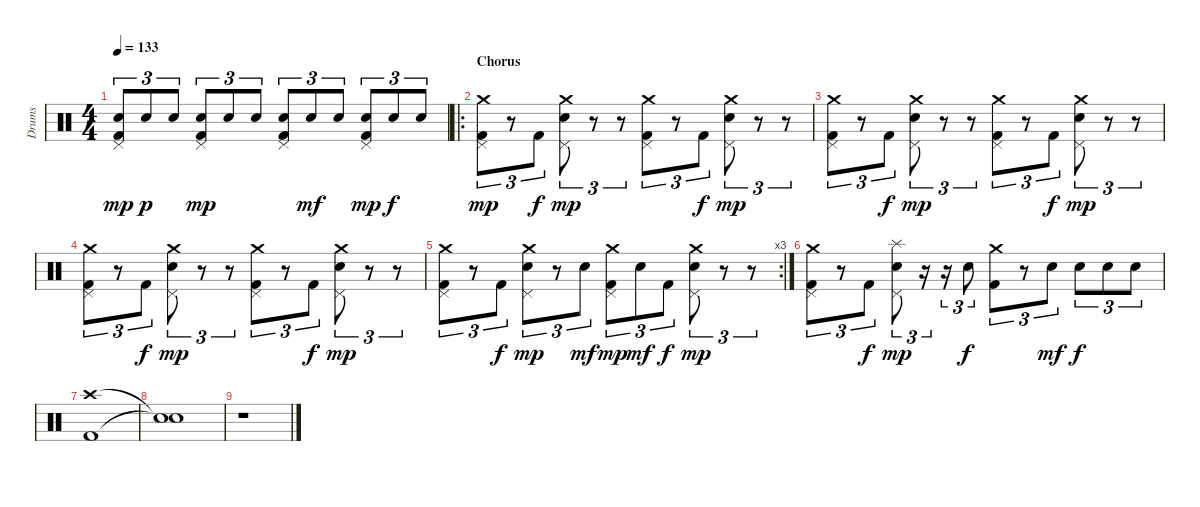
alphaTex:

\track ("Drums" "Drums") {instrument percussion}
\staff {score}
\articulation defaults
\ts (4 4)
\tempo 133
\clef neutral
\ks c
("Electric Snare (hit)" "Pedal Hi-Hat (hit)" "Kick (hit) 2").8{tu (3 2) dy mp} "Electric Snare (hit)".8{tu (3 2) dy p} "Electric Snare (hit)".8{tu (3 2)} ("Electric Snare (hit)" "Pedal Hi-Hat (hit)" "Kick (hit) 2").8{tu (3 2) dy mp} "Electric Snare (hit)".8{tu (3 2)} "Electric Snare (hit)".8{tu (3 2)} ("Electric Snare (hit)" "Pedal Hi-Hat (hit)" "Kick (hit) 2").8{tu (3 2)} "Electric Snare (hit)".8{tu (3 2) dy mf} "Electric Snare (hit)".8{tu (3 2)} ("Electric Snare (hit)" "Pedal Hi-Hat (hit)" "Kick (hit) 2").8{tu (3 2) dy mp} "Electric Snare (hit)".8{tu (3 2) dy f} "Electric Snare (hit)".8{tu (3 2)} |
\ro
\section ("" "Chorus")
("Crash medium (hit)" "Pedal Hi-Hat (hit)" "Kick (hit) 2").8{tu (3 2) dy mp} r.8{tu (3 2)} "Kick (hit) 2".8{tu (3 2) dy f} ("Crash medium (hit)" "Electric Snare (hit)" "Pedal Hi-Hat (hit)").8{tu (3 2) dy mp} r.8{tu (3 2)} r.8{tu (3 2)} ("Crash medium (hit)" "Pedal Hi-Hat (hit)" "Kick (hit) 2").8{tu (3 2)} r.8{tu (3 2)} "Kick (hit) 2".8{tu (3 2) dy f} ("Crash medium (hit)" "Electric Snare (hit)" "Pedal Hi-Hat (hit)").8{tu (3 2) dy mp} r.8{tu (3 2)} r.8{tu (3 2)} |
("Crash medium (hit)" "Pedal Hi-Hat (hit)" "Kick (hit) 2").8{tu (3 2)} r.8{tu (3 2)} "Kick (hit) 2".8{tu (3 2) dy f} ("Crash medium (hit)" "Electric Snare (hit)" "Pedal Hi-Hat (hit)").8{tu (3 2) dy mp} r.8{tu (3 2)} r.8{tu (3 2)} ("Crash medium (hit)" "Pedal Hi-Hat (hit)" "Kick (hit) 2").8{tu (3 2)} r.8{tu (3 2)} "Kick (hit) 2".8{tu (3 2) dy f} ("Crash medium (hit)" "Electric Snare (hit)" "Pedal Hi-Hat (hit)").8{tu (3 2) dy mp} r.8{tu (3 2)} r.8{tu (3 2)} |
("Crash medium (hit)" "Pedal Hi-Hat (hit)" "Kick (hit) 2").8{tu (3 2)} r.8{tu (3 2)} "Kick (hit) 2".8{tu (3 2) dy f} ("Crash medium (hit)" "Electric Snare (hit)" "Pedal Hi-Hat (hit)").8{tu (3 2) dy mp} r.8{tu (3 2)} r.8{tu (3 2)} ("Crash medium (hit)" "Pedal Hi-Hat (hit)" "Kick (hit) 2").8{tu (3 2)} r.8{tu (3 2)} "Kick (hit) 2".8{tu (3 2) dy f} ("Crash medium (hit)" "Electric Snare (hit)" "Pedal Hi-Hat (hit)").8{tu (3 2) dy mp} r.8{tu (3 2)} r.8{tu (3 2)} |
\rc 3
("Crash medium (hit)" "Pedal Hi-Hat (hit)" "Kick (hit) 2").8{tu (3 2)} r.8{tu (3 2)} "Kick (hit) 2".8{tu (3 2) dy f} ("Crash medium (hit)" "Electric Snare (hit)" "Pedal Hi-Hat (hit)").8{tu (3 2) dy mp} r.8{tu (3 2)} "Electric Snare (hit)".8{tu (3 2) dy mf} ("Crash medium (hit)" "Pedal Hi-Hat (hit)" "Kick (hit) 2").8{tu (3 2) dy mp} "Electric Snare (hit)".8{tu (3 2) dy mf} "Kick (hit) 2".8{tu (3 2) dy f} ("Crash medium (hit)" "Electric Snare (hit)" "Pedal Hi-Hat (hit)").8{tu (3 2) dy mp} r.8{tu (3 2)} r.8{tu (3 2)} |
("Crash medium (hit)" "Pedal Hi-Hat (hit)" "Kick (hit) 2").8{tu (3 2)} r.8{tu (3 2)} "Kick (hit) 2".8{tu (3 2) dy f} ("Splash (hit)" "Electric Snare (hit)" "Pedal Hi-Hat (hit)").8{tu (3 2) dy mp} r.16{tu (3 2)} r.16{tu (3 2)} "Electric Snare (hit)".8{tu (3 2) dy f} ("Crash medium (hit)" "Kick (hit) 2").8{tu (3 2)} r.8{tu (3 2)} "Electric Snare (hit)".8{tu (3 2) dy mf} "Electric Snare (hit)".8{tu (3 2) dy f} "Electric Snare (hit)".8{tu (3 2)} "Electric Snare (hit)".8{tu (3 2)} |
("Crash high (hit)" "Kick (hit) 2").1 |
("Snare (hit)"{t} "Snare (hit)"{t}).1 |
r.1
